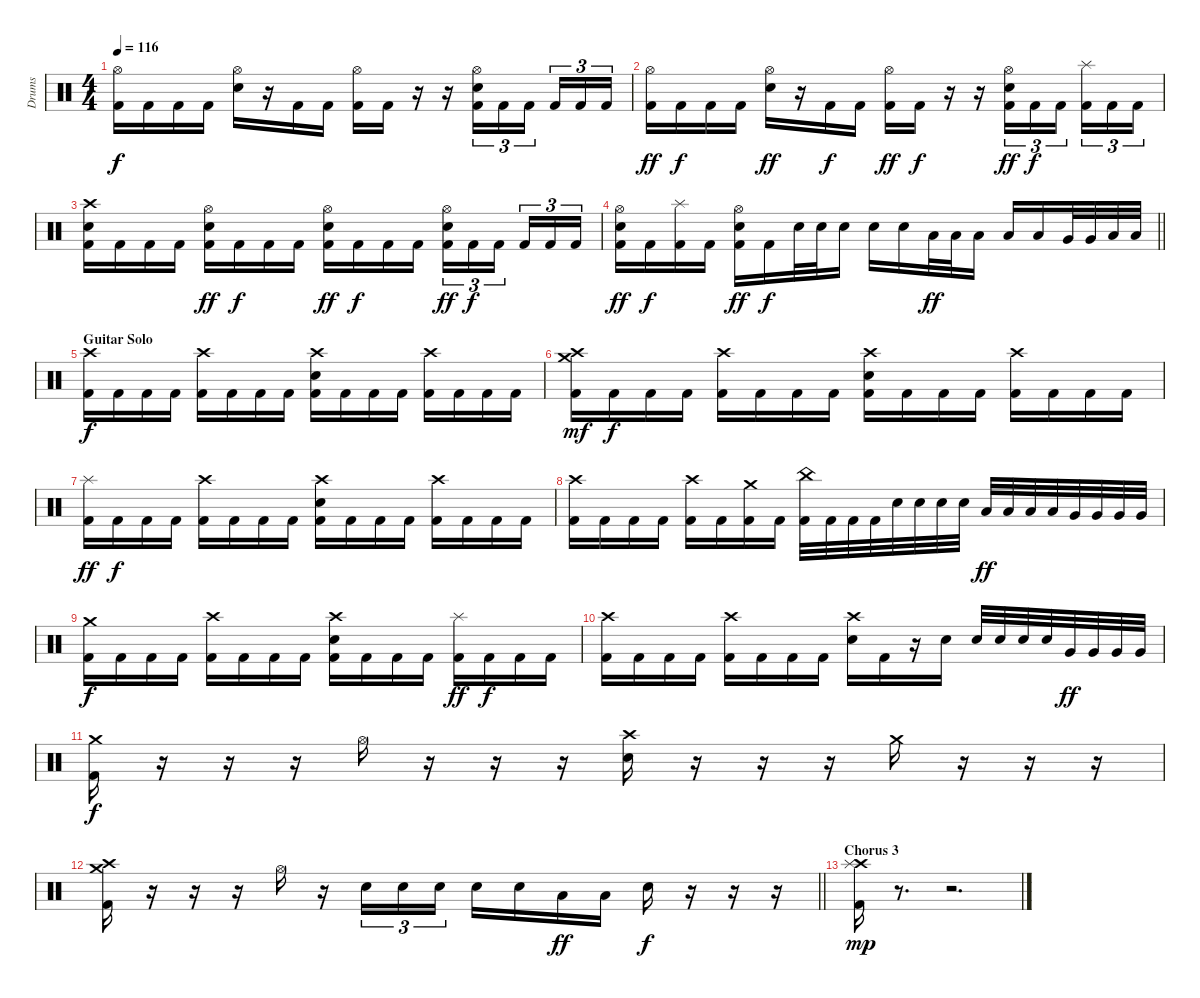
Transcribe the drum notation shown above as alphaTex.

\track ("Drums" "Drums") {instrument percussion}
\staff {score}
\articulation defaults
\ts (4 4)
\tempo 116
\clef neutral
\ks c
("Hi-Hat (open)" "Kick (hit) 2").16{dy f} "Kick (hit) 2".16 "Kick (hit) 2".16 "Kick (hit) 2".16 ("Hi-Hat (open)" "Snare (hit) 2").16 r.16 "Kick (hit) 2".16 "Kick (hit) 2".16 ("Hi-Hat (open)" "Kick (hit) 2").16 "Kick (hit) 2".16 r.16 r.16 ("Hi-Hat (open)" "Snare (hit) 2" "Kick (hit) 2").16{tu (3 2)} "Kick (hit) 2".16{tu (3 2)} "Kick (hit) 2".16{tu (3 2)} "Kick (hit) 2".16{tu (3 2)} "Kick (hit) 2".16{tu (3 2)} "Kick (hit) 2".16{tu (3 2)} |
("Hi-Hat (open)" "Kick (hit) 2").16{dy ff} "Kick (hit) 2".16{dy f} "Kick (hit) 2".16 "Kick (hit) 2".16 ("Hi-Hat (open)" "Snare (hit) 2").16{dy ff} r.16 "Kick (hit) 2".16{dy f} "Kick (hit) 2".16 ("Hi-Hat (open)" "Kick (hit) 2").16{dy ff} "Kick (hit) 2".16{dy f} r.16 r.16 ("Hi-Hat (open)" "Snare (hit) 2" "Kick (hit) 2").16{tu (3 2) dy ff} "Kick (hit) 2".16{tu (3 2) dy f} "Kick (hit) 2".16{tu (3 2)} ("Splash (hit)" "Kick (hit) 2").16{tu (3 2)} "Kick (hit) 2".16{tu (3 2)} "Kick (hit) 2".16{tu (3 2)} |
("Crash high (hit)" "Snare (hit) 2" "Kick (hit) 2").16 "Kick (hit) 2".16 "Kick (hit) 2".16 "Kick (hit) 2".16 ("Hi-Hat (open)" "Snare (hit) 2" "Kick (hit) 2").16{dy ff} "Kick (hit) 2".16{dy f} "Kick (hit) 2".16 "Kick (hit) 2".16 ("Hi-Hat (open)" "Snare (hit) 2" "Kick (hit) 2").16{dy ff} "Kick (hit) 2".16{dy f} "Kick (hit) 2".16 "Kick (hit) 2".16 ("Hi-Hat (open)" "Snare (hit) 2" "Kick (hit) 2").16{tu (3 2) dy ff} "Kick (hit) 2".16{tu (3 2) dy f} "Kick (hit) 2".16{tu (3 2)} "Kick (hit) 2".16{tu (3 2)} "Kick (hit) 2".16{tu (3 2)} "Kick (hit) 2".16{tu (3 2)} |
\barLineRight lightlight
("Hi-Hat (open)" "Snare (hit) 2" "Kick (hit) 2").16{dy ff} "Kick (hit) 2".16{dy f} ("Splash (hit)" "Kick (hit) 2").16 "Kick (hit) 2".16 ("Hi-Hat (open)" "Snare (hit) 2" "Kick (hit) 2").16{dy ff} "Kick (hit) 2".16{dy f} "Snare (hit) 2".32 "Snare (hit) 2".32 "Snare (hit) 2".16 "Snare (hit) 2".16 "Snare (hit) 2".16 "Low Tom (hit)".32{dy ff} "Low Tom (hit)".32 "Low Tom (hit)".16 "Low Tom (hit)".16 "Low Tom (hit)".16 "Very Low Tom (hit)".32 "Very Low Tom (hit)".32 "Low Floor Tom (hit)".32 "Low Floor Tom (hit)".32 |
\section ("" "Guitar Solo")
("Crash high (hit)" "Kick (hit) 2").16{dy f} "Kick (hit) 2".16 "Kick (hit) 2".16 "Kick (hit) 2".16 ("Crash high (hit)" "Kick (hit) 2").16 "Kick (hit) 2".16 "Kick (hit) 2".16 "Kick (hit) 2".16 ("Crash high (hit)" "Snare (hit) 2" "Kick (hit) 2").16 "Kick (hit) 2".16 "Kick (hit) 2".16 "Kick (hit) 2".16 ("Crash high (hit)" "Kick (hit) 2").16 "Kick (hit) 2".16 "Kick (hit) 2".16 "Kick (hit) 2".16 |
("Crash high (hit)" "Crash medium (hit)" "Kick (hit) 2").16{dy mf} "Kick (hit) 2".16{dy f} "Kick (hit) 2".16 "Kick (hit) 2".16 ("Crash high (hit)" "Kick (hit) 2").16 "Kick (hit) 2".16 "Kick (hit) 2".16 "Kick (hit) 2".16 ("Crash high (hit)" "Snare (hit) 2" "Kick (hit) 2").16 "Kick (hit) 2".16 "Kick (hit) 2".16 "Kick (hit) 2".16 ("Crash high (hit)" "Kick (hit) 2").16 "Kick (hit) 2".16 "Kick (hit) 2".16 "Kick (hit) 2".16 |
("Splash (hit)" "Kick (hit) 2").16{dy ff} "Kick (hit) 2".16{dy f} "Kick (hit) 2".16 "Kick (hit) 2".16 ("Crash high (hit)" "Kick (hit) 2").16 "Kick (hit) 2".16 "Kick (hit) 2".16 "Kick (hit) 2".16 ("Crash high (hit)" "Snare (hit) 2" "Kick (hit) 2").16 "Kick (hit) 2".16 "Kick (hit) 2".16 "Kick (hit) 2".16 ("Crash high (hit)" "Kick (hit) 2").16 "Kick (hit) 2".16 "Kick (hit) 2".16 "Kick (hit) 2".16 |
("Crash high (hit)" "Kick (hit) 2").16 "Kick (hit) 2".16 "Kick (hit) 2".16 "Kick (hit) 2".16 ("Crash high (hit)" "Kick (hit) 2").16 "Kick (hit) 2".16 ("Crash medium (hit)" "Kick (hit) 2").16 "Kick (hit) 2".16 ("China (hit)" "Kick (hit) 2").32 "Kick (hit) 2".32 "Kick (hit) 2".32 "Kick (hit) 2".32 "Snare (hit) 2".32 "Snare (hit) 2".32 "Snare (hit) 2".32 "Snare (hit) 2".32 "Low Tom (hit)".32{dy ff} "Low Tom (hit)".32 "Low Tom (hit)".32 "Low Tom (hit)".32 "Very Low Tom (hit)".32 "Very Low Tom (hit)".32 "Very Low Tom (hit)".32 "Very Low Tom (hit)".32 |
("Crash medium (hit)" "Kick (hit) 2").16{dy f} "Kick (hit) 2".16 "Kick (hit) 2".16 "Kick (hit) 2".16 ("Crash high (hit)" "Kick (hit) 2").16 "Kick (hit) 2".16 "Kick (hit) 2".16 "Kick (hit) 2".16 ("Crash high (hit)" "Snare (hit) 2" "Kick (hit) 2").16 "Kick (hit) 2".16 "Kick (hit) 2".16 "Kick (hit) 2".16 ("Splash (hit)" "Kick (hit) 2").16{dy ff} "Kick (hit) 2".16{dy f} "Kick (hit) 2".16 "Kick (hit) 2".16 |
("Crash high (hit)" "Kick (hit) 2").16 "Kick (hit) 2".16 "Kick (hit) 2".16 "Kick (hit) 2".16 ("Crash high (hit)" "Kick (hit) 2").16 "Kick (hit) 2".16 "Kick (hit) 2".16 "Kick (hit) 2".16 ("Crash high (hit)" "Snare (hit) 2").16 "Kick (hit) 2".16 r.16 "Snare (hit) 2".16 "Snare (hit) 2".32 "Snare (hit) 2".32 "Snare (hit) 2".32 "Snare (hit) 2".32 "Very Low Tom (hit)".32{dy ff} "Very Low Tom (hit)".32 "Very Low Tom (hit)".32 "Very Low Tom (hit)".32 |
("Crash medium (hit)" "Kick (hit) 2").16{dy f} r.16 r.16 r.16 "Hi-Hat (open)".16 r.16 r.16 r.16 ("Crash high (hit)" "Snare (hit) 2").16 r.16 r.16 r.16 "Crash medium (hit)".16 r.16 r.16 r.16 |
\barLineRight lightlight
("Crash medium (hit)" "Crash high (hit)" "Kick (hit) 2").16 r.16 r.16 r.16 "Hi-Hat (open)".16 r.16 "Snare (hit) 2".16{tu (3 2)} "Snare (hit) 2".16{tu (3 2)} "Snare (hit) 2".16{tu (3 2)} "Snare (hit) 2".16 "Snare (hit) 2".16 "Low Floor Tom (hit)".16{dy ff} "Low Floor Tom (hit)".16 "Snare (hit) 2".16{dy f} r.16 r.16 r.16 |
\section ("" "Chorus 3")
("Crash high (hit)" "Splash (hit)" "Kick (hit) 2").16{dy mp} r.8{d} r.2{d}
